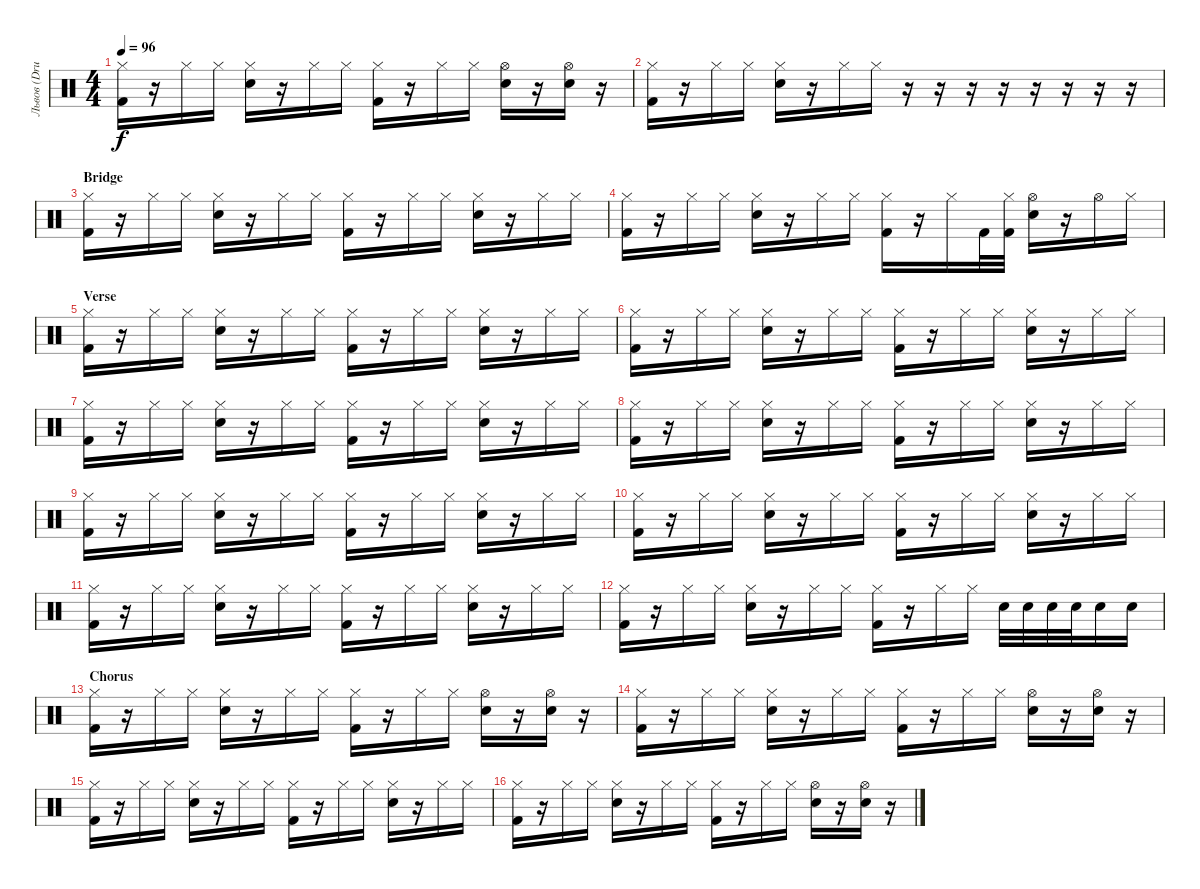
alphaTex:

\track ("Львов (Drums)" "Львов (Dru") {instrument percussion}
\staff {score}
\articulation defaults
\ts (4 4)
\tempo 96
\clef neutral
\ks c
("Kick (hit) 2" "Hi-Hat (closed)").16{dy f} r.16 "Hi-Hat (closed)".16 "Hi-Hat (closed)".16 ("Electric Snare (hit)" "Hi-Hat (closed)").16 r.16 "Hi-Hat (closed)".16 "Hi-Hat (closed)".16 ("Kick (hit) 2" "Hi-Hat (closed)").16 r.16 "Hi-Hat (closed)".16 "Hi-Hat (closed)".16 ("Electric Snare (hit)" "Hi-Hat (open)").16 r.16 ("Electric Snare (hit)" "Hi-Hat (open)").16 r.16 |
("Kick (hit) 2" "Hi-Hat (closed)").16 r.16 "Hi-Hat (closed)".16 "Hi-Hat (closed)".16 ("Electric Snare (hit)" "Hi-Hat (closed)").16 r.16 "Hi-Hat (closed)".16 "Hi-Hat (closed)".16 r.16 r.16 r.16 r.16 r.16 r.16 r.16 r.16 |
\section ("" "Bridge")
("Kick (hit) 2" "Hi-Hat (closed)").16 r.16 "Hi-Hat (closed)".16 "Hi-Hat (closed)".16 ("Electric Snare (hit)" "Hi-Hat (closed)").16 r.16 "Hi-Hat (closed)".16 "Hi-Hat (closed)".16 ("Kick (hit) 2" "Hi-Hat (closed)").16 r.16 "Hi-Hat (closed)".16 "Hi-Hat (closed)".16 ("Electric Snare (hit)" "Hi-Hat (closed)").16 r.16 "Hi-Hat (closed)".16 "Hi-Hat (closed)".16 |
("Kick (hit) 2" "Hi-Hat (closed)").16 r.16 "Hi-Hat (closed)".16 "Hi-Hat (closed)".16 ("Electric Snare (hit)" "Hi-Hat (closed)").16 r.16 "Hi-Hat (closed)".16 "Hi-Hat (closed)".16 ("Kick (hit) 2" "Hi-Hat (closed)").16 r.16 "Hi-Hat (closed)".16 "Kick (hit) 2".32 ("Kick (hit) 2" "Hi-Hat (closed)").32 ("Electric Snare (hit)" "Hi-Hat (open)").16 r.16 "Hi-Hat (open)".16 "Hi-Hat (closed)".16 |
\section ("" "Verse")
("Kick (hit) 2" "Hi-Hat (closed)").16 r.16 "Hi-Hat (closed)".16 "Hi-Hat (closed)".16 ("Electric Snare (hit)" "Hi-Hat (closed)").16 r.16 "Hi-Hat (closed)".16 "Hi-Hat (closed)".16 ("Kick (hit) 2" "Hi-Hat (closed)").16 r.16 "Hi-Hat (closed)".16 "Hi-Hat (closed)".16 ("Electric Snare (hit)" "Hi-Hat (closed)").16 r.16 "Hi-Hat (closed)".16 "Hi-Hat (closed)".16 |
("Kick (hit) 2" "Hi-Hat (closed)").16 r.16 "Hi-Hat (closed)".16 "Hi-Hat (closed)".16 ("Electric Snare (hit)" "Hi-Hat (closed)").16 r.16 "Hi-Hat (closed)".16 "Hi-Hat (closed)".16 ("Kick (hit) 2" "Hi-Hat (closed)").16 r.16 "Hi-Hat (closed)".16 "Hi-Hat (closed)".16 ("Electric Snare (hit)" "Hi-Hat (closed)").16 r.16 "Hi-Hat (closed)".16 "Hi-Hat (closed)".16 |
("Kick (hit) 2" "Hi-Hat (closed)").16 r.16 "Hi-Hat (closed)".16 "Hi-Hat (closed)".16 ("Electric Snare (hit)" "Hi-Hat (closed)").16 r.16 "Hi-Hat (closed)".16 "Hi-Hat (closed)".16 ("Kick (hit) 2" "Hi-Hat (closed)").16 r.16 "Hi-Hat (closed)".16 "Hi-Hat (closed)".16 ("Electric Snare (hit)" "Hi-Hat (closed)").16 r.16 "Hi-Hat (closed)".16 "Hi-Hat (closed)".16 |
("Kick (hit) 2" "Hi-Hat (closed)").16 r.16 "Hi-Hat (closed)".16 "Hi-Hat (closed)".16 ("Electric Snare (hit)" "Hi-Hat (closed)").16 r.16 "Hi-Hat (closed)".16 "Hi-Hat (closed)".16 ("Kick (hit) 2" "Hi-Hat (closed)").16 r.16 "Hi-Hat (closed)".16 "Hi-Hat (closed)".16 ("Electric Snare (hit)" "Hi-Hat (closed)").16 r.16 "Hi-Hat (closed)".16 "Hi-Hat (closed)".16 |
("Kick (hit) 2" "Hi-Hat (closed)").16 r.16 "Hi-Hat (closed)".16 "Hi-Hat (closed)".16 ("Electric Snare (hit)" "Hi-Hat (closed)").16 r.16 "Hi-Hat (closed)".16 "Hi-Hat (closed)".16 ("Kick (hit) 2" "Hi-Hat (closed)").16 r.16 "Hi-Hat (closed)".16 "Hi-Hat (closed)".16 ("Electric Snare (hit)" "Hi-Hat (closed)").16 r.16 "Hi-Hat (closed)".16 "Hi-Hat (closed)".16 |
("Kick (hit) 2" "Hi-Hat (closed)").16 r.16 "Hi-Hat (closed)".16 "Hi-Hat (closed)".16 ("Electric Snare (hit)" "Hi-Hat (closed)").16 r.16 "Hi-Hat (closed)".16 "Hi-Hat (closed)".16 ("Kick (hit) 2" "Hi-Hat (closed)").16 r.16 "Hi-Hat (closed)".16 "Hi-Hat (closed)".16 ("Electric Snare (hit)" "Hi-Hat (closed)").16 r.16 "Hi-Hat (closed)".16 "Hi-Hat (closed)".16 |
("Kick (hit) 2" "Hi-Hat (closed)").16 r.16 "Hi-Hat (closed)".16 "Hi-Hat (closed)".16 ("Electric Snare (hit)" "Hi-Hat (closed)").16 r.16 "Hi-Hat (closed)".16 "Hi-Hat (closed)".16 ("Kick (hit) 2" "Hi-Hat (closed)").16 r.16 "Hi-Hat (closed)".16 "Hi-Hat (closed)".16 ("Electric Snare (hit)" "Hi-Hat (closed)").16 r.16 "Hi-Hat (closed)".16 "Hi-Hat (closed)".16 |
("Kick (hit) 2" "Hi-Hat (closed)").16 r.16 "Hi-Hat (closed)".16 "Hi-Hat (closed)".16 ("Electric Snare (hit)" "Hi-Hat (closed)").16 r.16 "Hi-Hat (closed)".16 "Hi-Hat (closed)".16 ("Kick (hit) 2" "Hi-Hat (closed)").16 r.16 "Hi-Hat (closed)".16 "Hi-Hat (closed)".16 "Electric Snare (hit)".32 "Electric Snare (hit)".32 "Electric Snare (hit)".32 "Electric Snare (hit)".32 "Electric Snare (hit)".16 "Electric Snare (hit)".16 |
\section ("" "Chorus")
("Kick (hit) 2" "Hi-Hat (closed)").16 r.16 "Hi-Hat (closed)".16 "Hi-Hat (closed)".16 ("Electric Snare (hit)" "Hi-Hat (closed)").16 r.16 "Hi-Hat (closed)".16 "Hi-Hat (closed)".16 ("Kick (hit) 2" "Hi-Hat (closed)").16 r.16 "Hi-Hat (closed)".16 "Hi-Hat (closed)".16 ("Electric Snare (hit)" "Hi-Hat (open)").16 r.16 ("Electric Snare (hit)" "Hi-Hat (open)").16 r.16 |
("Kick (hit) 2" "Hi-Hat (closed)").16 r.16 "Hi-Hat (closed)".16 "Hi-Hat (closed)".16 ("Electric Snare (hit)" "Hi-Hat (closed)").16 r.16 "Hi-Hat (closed)".16 "Hi-Hat (closed)".16 ("Kick (hit) 2" "Hi-Hat (closed)").16 r.16 "Hi-Hat (closed)".16 "Hi-Hat (closed)".16 ("Electric Snare (hit)" "Hi-Hat (open)").16 r.16 ("Electric Snare (hit)" "Hi-Hat (open)").16 r.16 |
("Kick (hit) 2" "Hi-Hat (closed)").16 r.16 "Hi-Hat (closed)".16 "Hi-Hat (closed)".16 ("Electric Snare (hit)" "Hi-Hat (closed)").16 r.16 "Hi-Hat (closed)".16 "Hi-Hat (closed)".16 ("Kick (hit) 2" "Hi-Hat (closed)").16 r.16 "Hi-Hat (closed)".16 "Hi-Hat (closed)".16 ("Electric Snare (hit)" "Hi-Hat (closed)").16 r.16 "Hi-Hat (closed)".16 "Hi-Hat (closed)".16 |
("Kick (hit) 2" "Hi-Hat (closed)").16 r.16 "Hi-Hat (closed)".16 "Hi-Hat (closed)".16 ("Electric Snare (hit)" "Hi-Hat (closed)").16 r.16 "Hi-Hat (closed)".16 "Hi-Hat (closed)".16 ("Kick (hit) 2" "Hi-Hat (closed)").16 r.16 "Hi-Hat (closed)".16 "Hi-Hat (closed)".16 ("Electric Snare (hit)" "Hi-Hat (open)").16 r.16 ("Electric Snare (hit)" "Hi-Hat (open)").16 r.16
